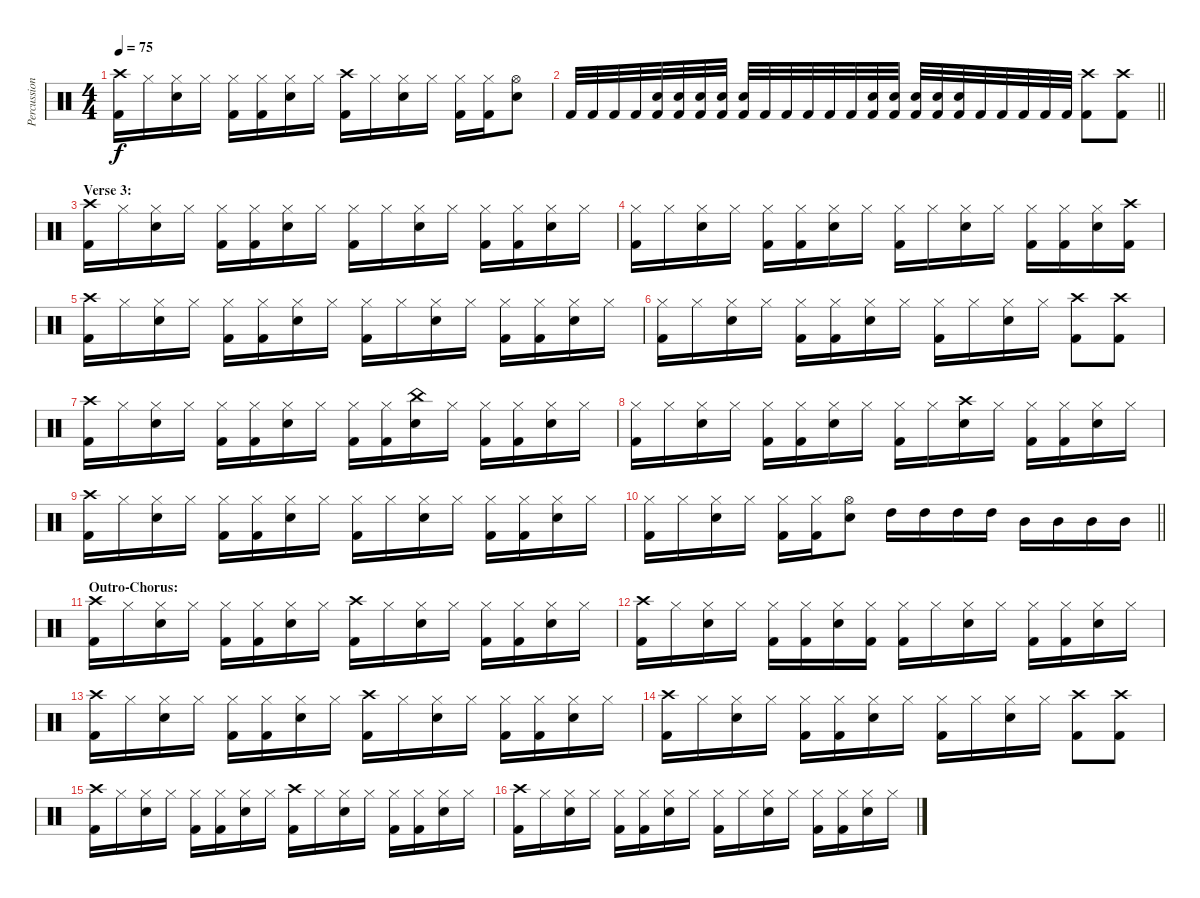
\track ("Percussion" "Percussion") {instrument percussion}
\staff {score}
\articulation defaults
\ts (4 4)
\tempo 75
\clef neutral
\ks c
("Crash high (hit)" "Kick (hit) 2").16{dy f} "Hi-Hat (closed)".16 ("Hi-Hat (closed)" "Electric Snare (hit)").16 "Hi-Hat (closed)".16 ("Hi-Hat (closed)" "Kick (hit) 2").16 ("Hi-Hat (closed)" "Kick (hit) 2").16 ("Hi-Hat (closed)" "Electric Snare (hit)").16 "Hi-Hat (closed)".16 ("Crash high (hit)" "Kick (hit) 2").16 "Hi-Hat (closed)".16 ("Hi-Hat (closed)" "Electric Snare (hit)").16 "Hi-Hat (closed)".16 ("Hi-Hat (closed)" "Kick (hit) 2").16 ("Hi-Hat (closed)" "Kick (hit) 2").16 ("Hi-Hat (open)" "Electric Snare (hit)").8 |
\barLineRight lightlight "Kick (hit) 2".32 "Kick (hit) 2".32 "Kick (hit) 2".32 "Kick (hit) 2".32
("Electric Snare (hit)" "Kick (hit) 2").32 ("Electric Snare (hit)" "Kick (hit) 2").32 ("Electric Snare (hit)" "Kick (hit) 2").32 ("Electric Snare (hit)" "Kick (hit) 2").32 ("Electric Snare (hit)" "Kick (hit) 2").32 "Kick (hit) 2".32 "Kick (hit) 2".32 "Kick (hit) 2".32 "Kick (hit) 2".32 "Kick (hit) 2".32 ("Electric Snare (hit)" "Kick (hit) 2").32 ("Electric Snare (hit)" "Kick (hit) 2").32 ("Electric Snare (hit)" "Kick (hit) 2").32 ("Electric Snare (hit)" "Kick (hit) 2").32 ("Electric Snare (hit)" "Kick (hit) 2").32 "Kick (hit) 2".32 "Kick (hit) 2".32 "Kick (hit) 2".32 "Kick (hit) 2".32 "Kick (hit) 2".32 ("Crash high (hit)" "Kick (hit) 2").8 ("Crash high (hit)" "Kick (hit) 2").8 |
\section ("" "Verse 3:")
("Crash high (hit)" "Kick (hit) 2").16 "Hi-Hat (closed)".16 ("Hi-Hat (closed)" "Electric Snare (hit)").16 "Hi-Hat (closed)".16 ("Hi-Hat (closed)" "Kick (hit) 2").16 ("Hi-Hat (closed)" "Kick (hit) 2").16 ("Hi-Hat (closed)" "Electric Snare (hit)").16 "Hi-Hat (closed)".16 ("Hi-Hat (closed)" "Kick (hit) 2").16 "Hi-Hat (closed)".16 ("Hi-Hat (closed)" "Electric Snare (hit)").16 "Hi-Hat (closed)".16 ("Hi-Hat (closed)" "Kick (hit) 2").16 ("Hi-Hat (closed)" "Kick (hit) 2").16 ("Hi-Hat (closed)" "Electric Snare (hit)").16 "Hi-Hat (closed)".16 |
("Hi-Hat (closed)" "Kick (hit) 2").16 "Hi-Hat (closed)".16 ("Hi-Hat (closed)" "Electric Snare (hit)").16 "Hi-Hat (closed)".16 ("Hi-Hat (closed)" "Kick (hit) 2").16 ("Hi-Hat (closed)" "Kick (hit) 2").16 ("Hi-Hat (closed)" "Electric Snare (hit)").16 "Hi-Hat (closed)".16 ("Hi-Hat (closed)" "Kick (hit) 2").16 "Hi-Hat (closed)".16 ("Hi-Hat (closed)" "Electric Snare (hit)").16 "Hi-Hat (closed)".16 ("Hi-Hat (closed)" "Kick (hit) 2").16 ("Hi-Hat (closed)" "Kick (hit) 2").16 ("Hi-Hat (closed)" "Electric Snare (hit)").16 ("Crash high (hit)" "Kick (hit) 2").16 |
("Crash high (hit)" "Kick (hit) 2").16 "Hi-Hat (closed)".16 ("Hi-Hat (closed)" "Electric Snare (hit)").16 "Hi-Hat (closed)".16 ("Hi-Hat (closed)" "Kick (hit) 2").16 ("Hi-Hat (closed)" "Kick (hit) 2").16 ("Hi-Hat (closed)" "Electric Snare (hit)").16 "Hi-Hat (closed)".16 ("Hi-Hat (closed)" "Kick (hit) 2").16 "Hi-Hat (closed)".16 ("Hi-Hat (closed)" "Electric Snare (hit)").16 "Hi-Hat (closed)".16 ("Hi-Hat (closed)" "Kick (hit) 2").16 ("Hi-Hat (closed)" "Kick (hit) 2").16 ("Hi-Hat (closed)" "Electric Snare (hit)").16 "Hi-Hat (closed)".16 |
("Hi-Hat (closed)" "Kick (hit) 2").16 "Hi-Hat (closed)".16 ("Hi-Hat (closed)" "Electric Snare (hit)").16 "Hi-Hat (closed)".16 ("Hi-Hat (closed)" "Kick (hit) 2").16 ("Hi-Hat (closed)" "Kick (hit) 2").16 ("Hi-Hat (closed)" "Electric Snare (hit)").16 "Hi-Hat (closed)".16 ("Hi-Hat (closed)" "Kick (hit) 2").16 "Hi-Hat (closed)".16 ("Hi-Hat (closed)" "Electric Snare (hit)").16 "Hi-Hat (closed)".16 ("Crash high (hit)" "Kick (hit) 2").8 ("Crash high (hit)" "Kick (hit) 2").8 |
("Crash high (hit)" "Kick (hit) 2").16 "Hi-Hat (closed)".16 ("Hi-Hat (closed)" "Electric Snare (hit)").16 "Hi-Hat (closed)".16 ("Hi-Hat (closed)" "Kick (hit) 2").16 ("Hi-Hat (closed)" "Kick (hit) 2").16 ("Hi-Hat (closed)" "Electric Snare (hit)").16 "Hi-Hat (closed)".16 ("Hi-Hat (closed)" "Kick (hit) 2").16 ("Hi-Hat (closed)" "Kick (hit) 2").16 ("China (hit)" "Electric Snare (hit)").16 "Hi-Hat (closed)".16 ("Hi-Hat (closed)" "Kick (hit) 2").16 ("Hi-Hat (closed)" "Kick (hit) 2").16 ("Hi-Hat (closed)" "Electric Snare (hit)").16 "Hi-Hat (closed)".16 |
("Hi-Hat (closed)" "Kick (hit) 2").16 "Hi-Hat (closed)".16 ("Hi-Hat (closed)" "Electric Snare (hit)").16 "Hi-Hat (closed)".16 ("Hi-Hat (closed)" "Kick (hit) 2").16 ("Hi-Hat (closed)" "Kick (hit) 2").16 ("Hi-Hat (closed)" "Electric Snare (hit)").16 "Hi-Hat (closed)".16 ("Hi-Hat (closed)" "Kick (hit) 2").16 "Hi-Hat (closed)".16 ("Crash high (hit)" "Electric Snare (hit)").16 "Hi-Hat (closed)".16 ("Hi-Hat (closed)" "Kick (hit) 2").16 ("Hi-Hat (closed)" "Kick (hit) 2").16 ("Hi-Hat (closed)" "Electric Snare (hit)").16 "Hi-Hat (closed)".16 |
("Crash high (hit)" "Kick (hit) 2").16 "Hi-Hat (closed)".16 ("Hi-Hat (closed)" "Electric Snare (hit)").16 "Hi-Hat (closed)".16 ("Hi-Hat (closed)" "Kick (hit) 2").16 ("Hi-Hat (closed)" "Kick (hit) 2").16 ("Hi-Hat (closed)" "Electric Snare (hit)").16 "Hi-Hat (closed)".16 ("Hi-Hat (closed)" "Kick (hit) 2").16 "Hi-Hat (closed)".16 ("Hi-Hat (closed)" "Electric Snare (hit)").16 "Hi-Hat (closed)".16 ("Hi-Hat (closed)" "Kick (hit) 2").16 ("Hi-Hat (closed)" "Kick (hit) 2").16 ("Hi-Hat (closed)" "Electric Snare (hit)").16 "Hi-Hat (closed)".16 |
\barLineRight lightlight
("Hi-Hat (closed)" "Kick (hit) 2").16 "Hi-Hat (closed)".16 ("Hi-Hat (closed)" "Electric Snare (hit)").16 "Hi-Hat (closed)".16 ("Hi-Hat (closed)" "Kick (hit) 2").16 ("Hi-Hat (closed)" "Kick (hit) 2").16 ("Hi-Hat (open)" "Electric Snare (hit)").8 "High Tom (hit)".16 "High Tom (hit)".16 "High Tom (hit)".16 "High Tom (hit)".16 "Mid Tom (hit)".16 "Mid Tom (hit)".16 "Mid Tom (hit)".16 "Mid Tom (hit)".16 |
\section ("" "Outro-Chorus:")
("Crash high (hit)" "Kick (hit) 2").16 "Hi-Hat (closed)".16 ("Hi-Hat (closed)" "Electric Snare (hit)").16 "Hi-Hat (closed)".16 ("Hi-Hat (closed)" "Kick (hit) 2").16 ("Hi-Hat (closed)" "Kick (hit) 2").16 ("Hi-Hat (closed)" "Electric Snare (hit)").16 "Hi-Hat (closed)".16 ("Crash high (hit)" "Kick (hit) 2").16 "Hi-Hat (closed)".16 ("Hi-Hat (closed)" "Electric Snare (hit)").16 "Hi-Hat (closed)".16 ("Hi-Hat (closed)" "Kick (hit) 2").16 ("Hi-Hat (closed)" "Kick (hit) 2").16 ("Hi-Hat (closed)" "Electric Snare (hit)").16 "Hi-Hat (closed)".16 |
("Crash high (hit)" "Kick (hit) 2").16 "Hi-Hat (closed)".16 ("Hi-Hat (closed)" "Electric Snare (hit)").16 "Hi-Hat (closed)".16 ("Hi-Hat (closed)" "Kick (hit) 2").16 ("Hi-Hat (closed)" "Kick (hit) 2").16 ("Hi-Hat (closed)" "Electric Snare (hit)").16 ("Hi-Hat (closed)" "Kick (hit) 2").16 ("Hi-Hat (closed)" "Kick (hit) 2").16 "Hi-Hat (closed)".16 ("Hi-Hat (closed)" "Electric Snare (hit)").16 "Hi-Hat (closed)".16 ("Hi-Hat (closed)" "Kick (hit) 2").16 ("Hi-Hat (closed)" "Kick (hit) 2").16 ("Hi-Hat (closed)" "Electric Snare (hit)").16 "Hi-Hat (closed)".16 |
("Crash high (hit)" "Kick (hit) 2").16 "Hi-Hat (closed)".16 ("Hi-Hat (closed)" "Electric Snare (hit)").16 "Hi-Hat (closed)".16 ("Hi-Hat (closed)" "Kick (hit) 2").16 ("Hi-Hat (closed)" "Kick (hit) 2").16 ("Hi-Hat (closed)" "Electric Snare (hit)").16 "Hi-Hat (closed)".16 ("Crash high (hit)" "Kick (hit) 2").16 "Hi-Hat (closed)".16 ("Hi-Hat (closed)" "Electric Snare (hit)").16 "Hi-Hat (closed)".16 ("Hi-Hat (closed)" "Kick (hit) 2").16 ("Hi-Hat (closed)" "Kick (hit) 2").16 ("Hi-Hat (closed)" "Electric Snare (hit)").16 "Hi-Hat (closed)".16 |
("Crash high (hit)" "Kick (hit) 2").16 "Hi-Hat (closed)".16 ("Hi-Hat (closed)" "Electric Snare (hit)").16 "Hi-Hat (closed)".16 ("Hi-Hat (closed)" "Kick (hit) 2").16 ("Hi-Hat (closed)" "Kick (hit) 2").16 ("Hi-Hat (closed)" "Electric Snare (hit)").16 "Hi-Hat (closed)".16 ("Hi-Hat (closed)" "Kick (hit) 2").16 "Hi-Hat (closed)".16 ("Hi-Hat (closed)" "Electric Snare (hit)").16 "Hi-Hat (closed)".16 ("Crash high (hit)" "Kick (hit) 2").8 ("Crash high (hit)" "Kick (hit) 2").8 |
("Crash high (hit)" "Kick (hit) 2").16 "Hi-Hat (closed)".16 ("Hi-Hat (closed)" "Electric Snare (hit)").16 "Hi-Hat (closed)".16 ("Hi-Hat (closed)" "Kick (hit) 2").16 ("Hi-Hat (closed)" "Kick (hit) 2").16 ("Hi-Hat (closed)" "Electric Snare (hit)").16 "Hi-Hat (closed)".16 ("Crash high (hit)" "Kick (hit) 2").16 "Hi-Hat (closed)".16 ("Hi-Hat (closed)" "Electric Snare (hit)").16 "Hi-Hat (closed)".16 ("Hi-Hat (closed)" "Kick (hit) 2").16 ("Hi-Hat (closed)" "Kick (hit) 2").16 ("Hi-Hat (closed)" "Electric Snare (hit)").16 "Hi-Hat (closed)".16 |
("Crash high (hit)" "Kick (hit) 2").16 "Hi-Hat (closed)".16 ("Hi-Hat (closed)" "Electric Snare (hit)").16 "Hi-Hat (closed)".16 ("Hi-Hat (closed)" "Kick (hit) 2").16 ("Hi-Hat (closed)" "Kick (hit) 2").16 ("Hi-Hat (closed)" "Electric Snare (hit)").16 "Hi-Hat (closed)".16 ("Hi-Hat (closed)" "Kick (hit) 2").16 "Hi-Hat (closed)".16 ("Hi-Hat (closed)" "Electric Snare (hit)").16 "Hi-Hat (closed)".16 ("Hi-Hat (closed)" "Kick (hit) 2").16 ("Hi-Hat (closed)" "Kick (hit) 2").16 ("Hi-Hat (closed)" "Electric Snare (hit)").16 "Hi-Hat (closed)".16
